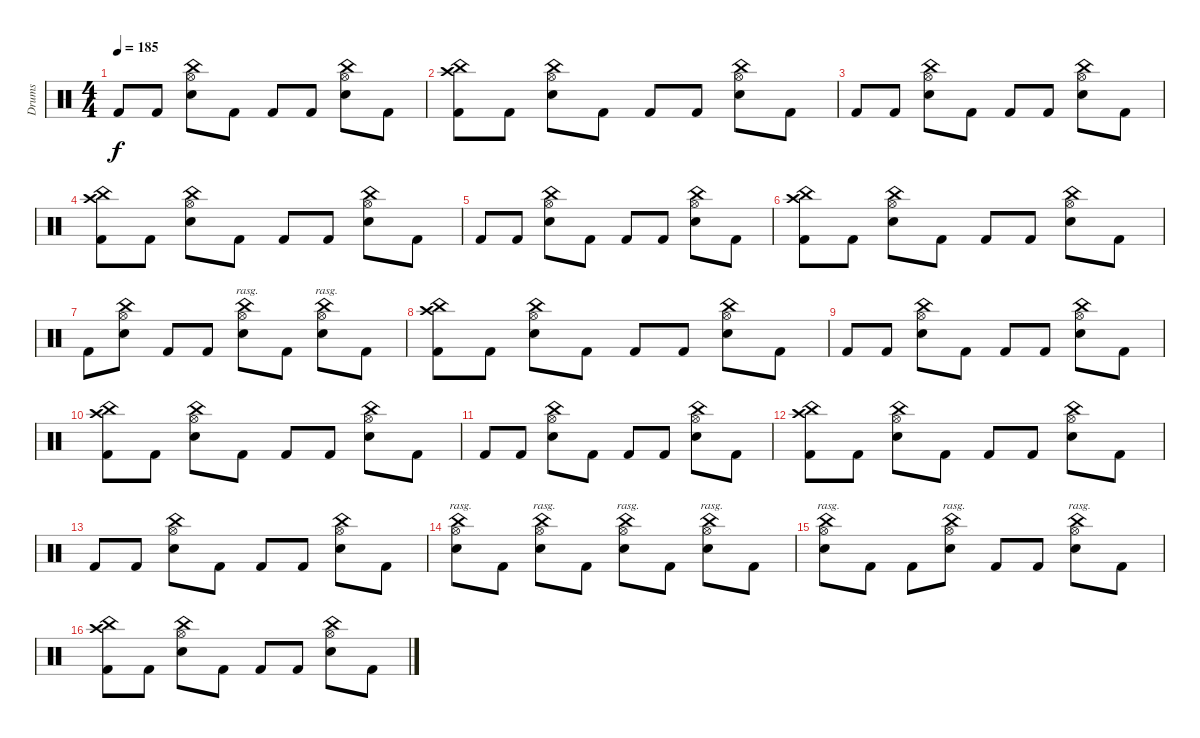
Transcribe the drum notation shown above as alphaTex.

\track ("Drums" "Drums") {instrument percussion}
\staff {score}
\articulation defaults
\ts (4 4)
\tempo 185
\clef neutral
\ks c "Kick (hit) 2".8{dy f} "Kick (hit) 2".8
("China (hit)" "Hi-Hat (open)" "Snare (hit) 2").8 "Kick (hit) 2".8 "Kick (hit) 2".8 "Kick (hit) 2".8 ("China (hit)" "Hi-Hat (open)" "Snare (hit) 2").8 "Kick (hit) 2".8 |
("Crash high (hit)" "China (hit)" "Kick (hit) 2").8 "Kick (hit) 2".8 ("China (hit)" "Hi-Hat (open)" "Snare (hit) 2").8 "Kick (hit) 2".8 "Kick (hit) 2".8 "Kick (hit) 2".8 ("China (hit)" "Hi-Hat (open)" "Snare (hit) 2").8 "Kick (hit) 2".8 |
"Kick (hit) 2".8 "Kick (hit) 2".8 ("China (hit)" "Hi-Hat (open)" "Snare (hit) 2").8 "Kick (hit) 2".8 "Kick (hit) 2".8 "Kick (hit) 2".8 ("China (hit)" "Hi-Hat (open)" "Snare (hit) 2").8 "Kick (hit) 2".8 |
("Crash high (hit)" "China (hit)" "Kick (hit) 2").8 "Kick (hit) 2".8 ("China (hit)" "Hi-Hat (open)" "Snare (hit) 2").8 "Kick (hit) 2".8 "Kick (hit) 2".8 "Kick (hit) 2".8 ("China (hit)" "Hi-Hat (open)" "Snare (hit) 2").8 "Kick (hit) 2".8 |
"Kick (hit) 2".8 "Kick (hit) 2".8 ("China (hit)" "Hi-Hat (open)" "Snare (hit) 2").8 "Kick (hit) 2".8 "Kick (hit) 2".8 "Kick (hit) 2".8 ("China (hit)" "Hi-Hat (open)" "Snare (hit) 2").8 "Kick (hit) 2".8 |
("Crash high (hit)" "China (hit)" "Kick (hit) 2").8 "Kick (hit) 2".8 ("China (hit)" "Hi-Hat (open)" "Snare (hit) 2").8 "Kick (hit) 2".8 "Kick (hit) 2".8 "Kick (hit) 2".8 ("China (hit)" "Hi-Hat (open)" "Snare (hit) 2").8 "Kick (hit) 2".8 |
"Kick (hit) 2".8 ("China (hit)" "Hi-Hat (open)" "Snare (hit) 2").8 "Kick (hit) 2".8 "Kick (hit) 2".8 ("China (hit)" "Hi-Hat (open)" "Snare (hit) 2").8{bd 120 rasg ii} "Kick (hit) 2".8 ("China (hit)" "Hi-Hat (open)" "Snare (hit) 2").8{bd 120 rasg ii} "Kick (hit) 2".8 |
("Crash high (hit)" "China (hit)" "Kick (hit) 2").8 "Kick (hit) 2".8 ("China (hit)" "Hi-Hat (open)" "Snare (hit) 2").8 "Kick (hit) 2".8 "Kick (hit) 2".8 "Kick (hit) 2".8 ("China (hit)" "Hi-Hat (open)" "Snare (hit) 2").8 "Kick (hit) 2".8 |
"Kick (hit) 2".8 "Kick (hit) 2".8 ("China (hit)" "Hi-Hat (open)" "Snare (hit) 2").8 "Kick (hit) 2".8 "Kick (hit) 2".8 "Kick (hit) 2".8 ("China (hit)" "Hi-Hat (open)" "Snare (hit) 2").8 "Kick (hit) 2".8 |
("Crash high (hit)" "China (hit)" "Kick (hit) 2").8 "Kick (hit) 2".8 ("China (hit)" "Hi-Hat (open)" "Snare (hit) 2").8 "Kick (hit) 2".8 "Kick (hit) 2".8 "Kick (hit) 2".8 ("China (hit)" "Hi-Hat (open)" "Snare (hit) 2").8 "Kick (hit) 2".8 |
"Kick (hit) 2".8 "Kick (hit) 2".8 ("China (hit)" "Hi-Hat (open)" "Snare (hit) 2").8 "Kick (hit) 2".8 "Kick (hit) 2".8 "Kick (hit) 2".8 ("China (hit)" "Hi-Hat (open)" "Snare (hit) 2").8 "Kick (hit) 2".8 |
("Crash high (hit)" "China (hit)" "Kick (hit) 2").8 "Kick (hit) 2".8 ("China (hit)" "Hi-Hat (open)" "Snare (hit) 2").8 "Kick (hit) 2".8 "Kick (hit) 2".8 "Kick (hit) 2".8 ("China (hit)" "Hi-Hat (open)" "Snare (hit) 2").8 "Kick (hit) 2".8 |
"Kick (hit) 2".8 "Kick (hit) 2".8 ("China (hit)" "Hi-Hat (open)" "Snare (hit) 2").8 "Kick (hit) 2".8 "Kick (hit) 2".8 "Kick (hit) 2".8 ("China (hit)" "Hi-Hat (open)" "Snare (hit) 2").8 "Kick (hit) 2".8 |
("China (hit)" "Hi-Hat (open)" "Snare (hit) 2").8{bd 120 rasg ii} "Kick (hit) 2".8 ("China (hit)" "Hi-Hat (open)" "Snare (hit) 2").8{bd 120 rasg ii} "Kick (hit) 2".8 ("China (hit)" "Hi-Hat (open)" "Snare (hit) 2").8{bd 120 rasg ii} "Kick (hit) 2".8 ("China (hit)" "Hi-Hat (open)" "Snare (hit) 2").8{bd 120 rasg ii} "Kick (hit) 2".8 |
("China (hit)" "Hi-Hat (open)" "Snare (hit) 2").8{bd 60 rasg ii} "Kick (hit) 2".8 "Kick (hit) 2".8 ("China (hit)" "Hi-Hat (open)" "Snare (hit) 2").8{bd 120 rasg ii} "Kick (hit) 2".8 "Kick (hit) 2".8 ("China (hit)" "Hi-Hat (open)" "Snare (hit) 2").8{bd 120 rasg ii} "Kick (hit) 2".8 |
("Crash high (hit)" "China (hit)" "Kick (hit) 2").8 "Kick (hit) 2".8 ("China (hit)" "Hi-Hat (open)" "Snare (hit) 2").8 "Kick (hit) 2".8 "Kick (hit) 2".8 "Kick (hit) 2".8 ("China (hit)" "Hi-Hat (open)" "Snare (hit) 2").8 "Kick (hit) 2".8
